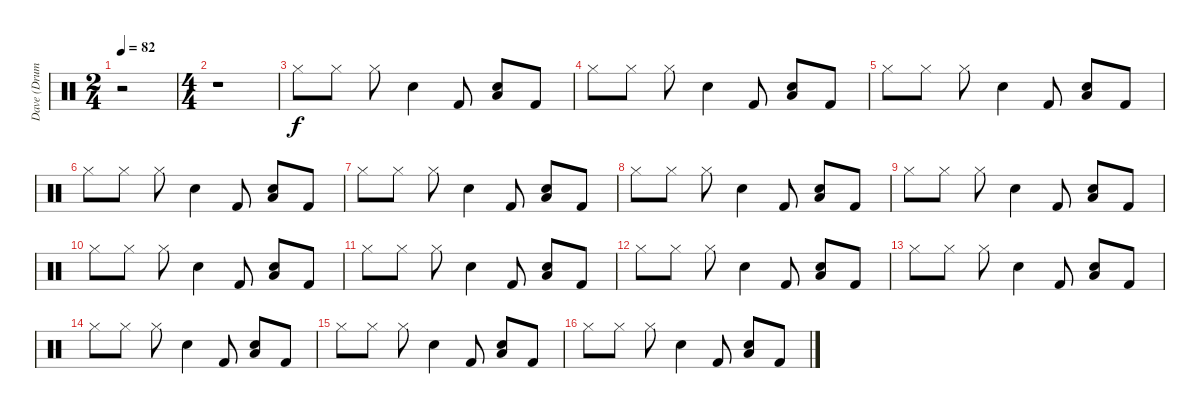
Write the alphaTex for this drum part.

\track ("Dave (Drums)" "Dave (Drum") {instrument percussion}
\staff {score}
\articulation defaults
\ts (2 4)
\tempo 82
\clef neutral
\ks c
r.2{dy f} |
\ts (4 4)
r.1 |
"Hi-Hat (closed)".8 "Hi-Hat (closed)".8 "Hi-Hat (closed)".8 "Snare (hit) 2".4 "Kick (hit) 2".8 ("Snare (hit) 2" "Low Tom (hit)").8 "Kick (hit) 2".8 |
"Hi-Hat (closed)".8 "Hi-Hat (closed)".8 "Hi-Hat (closed)".8 "Snare (hit) 2".4 "Kick (hit) 2".8 ("Snare (hit) 2" "Low Tom (hit)").8 "Kick (hit) 2".8 |
"Hi-Hat (closed)".8 "Hi-Hat (closed)".8 "Hi-Hat (closed)".8 "Snare (hit) 2".4 "Kick (hit) 2".8 ("Snare (hit) 2" "Low Tom (hit)").8 "Kick (hit) 2".8 |
"Hi-Hat (closed)".8 "Hi-Hat (closed)".8 "Hi-Hat (closed)".8 "Snare (hit) 2".4 "Kick (hit) 2".8 ("Snare (hit) 2" "Low Tom (hit)").8 "Kick (hit) 2".8 |
"Hi-Hat (closed)".8 "Hi-Hat (closed)".8 "Hi-Hat (closed)".8 "Snare (hit) 2".4 "Kick (hit) 2".8 ("Snare (hit) 2" "Low Tom (hit)").8 "Kick (hit) 2".8 |
"Hi-Hat (closed)".8 "Hi-Hat (closed)".8 "Hi-Hat (closed)".8 "Snare (hit) 2".4 "Kick (hit) 2".8 ("Snare (hit) 2" "Low Tom (hit)").8 "Kick (hit) 2".8 |
"Hi-Hat (closed)".8 "Hi-Hat (closed)".8 "Hi-Hat (closed)".8 "Snare (hit) 2".4 "Kick (hit) 2".8 ("Snare (hit) 2" "Low Tom (hit)").8 "Kick (hit) 2".8 |
"Hi-Hat (closed)".8 "Hi-Hat (closed)".8 "Hi-Hat (closed)".8 "Snare (hit) 2".4 "Kick (hit) 2".8 ("Snare (hit) 2" "Low Tom (hit)").8 "Kick (hit) 2".8 |
"Hi-Hat (closed)".8 "Hi-Hat (closed)".8 "Hi-Hat (closed)".8 "Snare (hit) 2".4 "Kick (hit) 2".8 ("Snare (hit) 2" "Low Tom (hit)").8 "Kick (hit) 2".8 |
"Hi-Hat (closed)".8 "Hi-Hat (closed)".8 "Hi-Hat (closed)".8 "Snare (hit) 2".4 "Kick (hit) 2".8 ("Snare (hit) 2" "Low Tom (hit)").8 "Kick (hit) 2".8 |
"Hi-Hat (closed)".8 "Hi-Hat (closed)".8 "Hi-Hat (closed)".8 "Snare (hit) 2".4 "Kick (hit) 2".8 ("Snare (hit) 2" "Low Tom (hit)").8 "Kick (hit) 2".8 |
"Hi-Hat (closed)".8 "Hi-Hat (closed)".8 "Hi-Hat (closed)".8 "Snare (hit) 2".4 "Kick (hit) 2".8 ("Snare (hit) 2" "Low Tom (hit)").8 "Kick (hit) 2".8 |
"Hi-Hat (closed)".8 "Hi-Hat (closed)".8 "Hi-Hat (closed)".8 "Snare (hit) 2".4 "Kick (hit) 2".8 ("Snare (hit) 2" "Low Tom (hit)").8 "Kick (hit) 2".8 |
"Hi-Hat (closed)".8 "Hi-Hat (closed)".8 "Hi-Hat (closed)".8 "Snare (hit) 2".4 "Kick (hit) 2".8 ("Snare (hit) 2" "Low Tom (hit)").8 "Kick (hit) 2".8
